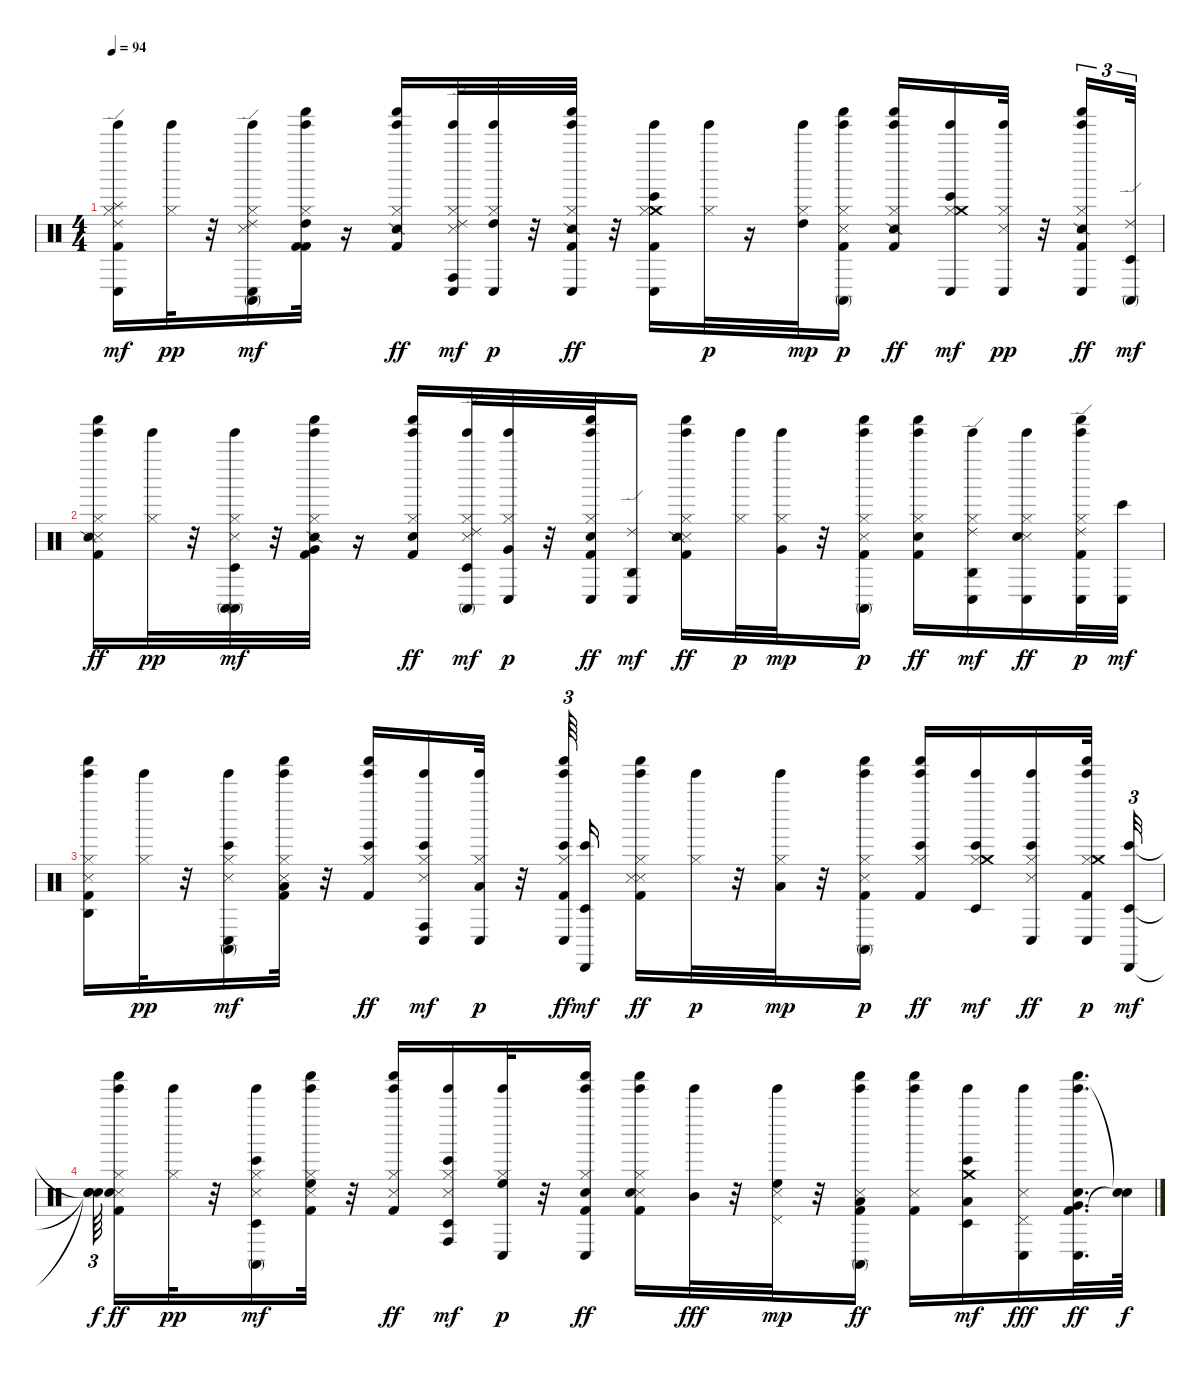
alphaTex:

\track "" {instrument percussion}
\staff {score}
\articulation defaults
\ts (4 4)
\tempo 94
\clef neutral
\ks c
("Ride (edge) 2" "Conga low (hit)" "Splash (hit)" "Kick (hit) 2" "Hi-Hat (closed)" "Tinkle Bell (hit)").16{dy mf volume 6} ("Hi-Hat (closed)" "Tinkle Bell (hit)").32{dy pp} r.32 ("Hi-Hat (closed)" "Tinkle Bell (hit)" "Conga high (mute)" "Snare (side stick) 3" "Ride (edge) 2" "Conga low (hit)").16{dy mf} ("Kick (hit) 2" "Hi-Hat (closed)" "Tinkle Bell (hit)" "Shaker (hit)" "Kick (hit) 2" "High Tom (hit)").32 r.16 ("Kick (hit) 2" "Hi-Hat (closed)" "Tinkle Bell (hit)" "Shaker (hit)" "Snare (side stick) 2").16{dy ff} ("Hi-Hat (closed)" "Tinkle Bell (hit)" "Conga high (hit)" "Snare (side stick) 3" "Conga low (hit)" "Ride (edge) 2").32{dy mf} ("Hi-Hat (closed)" "Tinkle Bell (hit)" "Conga low (hit)" "High Tom (hit)").32{dy p} r.32 ("Kick (hit) 2" "Hi-Hat (closed)" "Tinkle Bell (hit)" "Shaker (hit)" "Conga low (hit)" "Snare (side stick) 2").32{dy ff volume 7} r.32 ("Bongo High (hit)" "Conga low (hit)" "Crash medium (hit)" "Kick (hit) 2" "Hi-Hat (closed)" "Tinkle Bell (hit)").16{volume 6} ("Hi-Hat (closed)" "Tinkle Bell (hit)").32{dy p} r.16 ("Hi-Hat (closed)" "Tinkle Bell (hit)" "High Tom (hit)").32{dy mp} ("Conga high (mute)" "Kick (hit) 2" "Hi-Hat (closed)" "Tinkle Bell (hit)" "Shaker (hit)" "Snare (side stick) 3").16{dy p} ("Kick (hit) 2" "Hi-Hat (closed)" "Tinkle Bell (hit)" "Shaker (hit)" "Snare (side stick) 2").16{dy ff} ("Hi-Hat (closed)" "Tinkle Bell (hit)" "Bongo High (hit)" "Crash medium (hit)" "Conga low (hit)").16{dy mf} ("Hi-Hat (closed)" "Tinkle Bell (hit)" "Conga low (hit)" "Snare (side stick) 3").32{dy pp} r.32 ("Kick (hit) 2" "Hi-Hat (closed)" "Tinkle Bell (hit)" "Shaker (hit)" "Conga low (hit)" "Snare (side stick) 2").16{tu (3 2) dy ff volume 7} ("Conga high (mute)" "Timbale low (hit)" "Ride (edge) 2").32{tu (3 2) dy mf volume 6} |
("Kick (hit) 2" "Hi-Hat (closed)" "Tinkle Bell (hit)" "Shaker (hit)" "Snare (side stick) 3" "Snare (side stick) 2").16{dy ff} ("Hi-Hat (closed)" "Tinkle Bell (hit)").32{dy pp} r.32 ("Hi-Hat (closed)" "Tinkle Bell (hit)" "Conga high (mute)" "Snare (side stick) 3" "Conga high (mute)" "Timbale low (hit)").32{dy mf} r.32 ("Kick (hit) 2" "Hi-Hat (closed)" "Tinkle Bell (hit)" "Shaker (hit)" "Snare (side stick) 2" "Very Low Tom (hit)").32 r.16 ("Kick (hit) 2" "Hi-Hat (closed)" "Tinkle Bell (hit)" "Shaker (hit)" "Snare (hit) 2").16{dy ff} ("Hi-Hat (closed)" "Tinkle Bell (hit)" "Snare (side stick) 3" "Timbale low (hit)" "Conga high (mute)" "Ride (edge) 2").32{dy mf} ("Hi-Hat (closed)" "Tinkle Bell (hit)" "Conga low (hit)" "Very Low Tom (hit)").32{dy p} r.32 ("Kick (hit) 2" "Hi-Hat (closed)" "Tinkle Bell (hit)" "Shaker (hit)" "Conga low (hit)" "Snare (hit) 2").32{dy ff volume 7} ("Conga low (hit)" "Agogo high (hit)" "Ride (edge) 2").16{dy mf volume 6} ("Kick (hit) 2" "Hi-Hat (closed)" "Tinkle Bell (hit)" "Shaker (hit)" "Snare (side stick) 3" "Snare (side stick) 2").16{dy ff} ("Hi-Hat (closed)" "Tinkle Bell (hit)").32{dy p} ("Hi-Hat (closed)" "Tinkle Bell (hit)" "Very Low Tom (hit)").32{dy mp} r.32 ("Conga high (mute)" "Kick (hit) 2" "Hi-Hat (closed)" "Tinkle Bell (hit)" "Shaker (hit)" "Snare (side stick) 3").16{dy p} ("Kick (hit) 2" "Hi-Hat (closed)" "Tinkle Bell (hit)" "Shaker (hit)" "Snare (hit) 2").16{dy ff} ("Hi-Hat (closed)" "Tinkle Bell (hit)" "Conga low (hit)" "Ride (edge) 2" "Agogo high (hit)").16{dy mf} ("Hi-Hat (closed)" "Tinkle Bell (hit)" "Conga low (hit)" "Snare (side stick) 3" "Snare (hit) 2").16{dy ff} ("Kick (hit) 2" "Hi-Hat (closed)" "Tinkle Bell (hit)" "Shaker (hit)" "Conga low (hit)" "Ride (edge) 2").32{dy p} ("Bongo High (hit)" "Conga low (hit)").32{dy mf volume 6} |
("Agogo high (hit)" "Kick (hit) 2" "Hi-Hat (closed)" "Tinkle Bell (hit)" "Shaker (hit)" "Snare (side stick) 3").16 ("Hi-Hat (closed)" "Tinkle Bell (hit)").32{dy pp} r.32 ("Hi-Hat (closed)" "Tinkle Bell (hit)" "Conga high (mute)" "Snare (side stick) 3" "Bongo High (hit)" "Conga low (hit)").16{dy mf} ("Kick (hit) 2" "Hi-Hat (closed)" "Tinkle Bell (hit)" "Shaker (hit)" "Metronome (hit)" "Low Tom (hit)").32 r.32 ("Kick (hit) 2" "Hi-Hat (closed)" "Tinkle Bell (hit)" "Shaker (hit)" "Bongo High (hit)").16{dy ff} ("Hi-Hat (closed)" "Tinkle Bell (hit)" "Conga high (hit)" "Snare (side stick) 3" "Conga low (hit)" "Bongo High (hit)").16{dy mf} ("Hi-Hat (closed)" "Tinkle Bell (hit)" "Conga low (hit)" "Low Tom (hit)").32{dy p} r.32 ("Kick (hit) 2" "Hi-Hat (closed)" "Tinkle Bell (hit)" "Shaker (hit)" "Conga low (hit)" "Bongo High (hit)").64{tu (3 2) dy ff volume 7} ("Bongo High (hit)" "Timbale low (hit)" "Cabasa (hit)").16{dy mf volume 6} ("Kick (hit) 2" "Hi-Hat (closed)" "Tinkle Bell (hit)" "Shaker (hit)" "Snare (side stick) 3" "Metronome (hit)").16{dy ff} ("Hi-Hat (closed)" "Tinkle Bell (hit)").32{dy p} r.32 ("Hi-Hat (closed)" "Tinkle Bell (hit)" "Low Tom (hit)").32{dy mp} r.32 ("Conga high (mute)" "Kick (hit) 2" "Hi-Hat (closed)" "Tinkle Bell (hit)" "Shaker (hit)" "Snare (side stick) 3").16{dy p} ("Kick (hit) 2" "Hi-Hat (closed)" "Tinkle Bell (hit)" "Shaker (hit)" "Bongo High (hit)").16{dy ff} ("Hi-Hat (closed)" "Tinkle Bell (hit)" "Bongo High (hit)" "Crash medium (hit)" "Timbale low (hit)").16{dy mf} ("Hi-Hat (closed)" "Tinkle Bell (hit)" "Conga low (hit)" "Snare (side stick) 3" "Bongo High (hit)").16{dy ff} ("Kick (hit) 2" "Hi-Hat (closed)" "Tinkle Bell (hit)" "Shaker (hit)" "Conga low (hit)" "Crash medium (hit)").32{dy p volume 7} ("Bongo High (hit)" "Timbale low (hit)" "Cabasa (hit)").32{tu (3 2) dy mf volume 6} |
("Snare (hit)"{t} "Snare (hit)"{t} "Snare (hit)"{t}).64{tu (3 2) dy f beam splitsecondary} ("Kick (hit) 2" "Hi-Hat (closed)" "Tinkle Bell (hit)" "Shaker (hit)" "Snare (side stick) 3" "Snare (hit) 2").16{dy ff} ("Hi-Hat (closed)" "Tinkle Bell (hit)").32{dy pp} r.32 ("Hi-Hat (closed)" "Tinkle Bell (hit)" "Conga high (mute)" "Snare (side stick) 3" "Bongo High (hit)" "Timbale low (hit)").16{dy mf} ("Kick (hit) 2" "Hi-Hat (closed)" "Tinkle Bell (hit)" "Shaker (hit)" "Metronome (hit)" "High Floor Tom (hit)").32 r.32 ("Kick (hit) 2" "Hi-Hat (closed)" "Tinkle Bell (hit)" "Shaker (hit)" "Metronome (hit)").16{dy ff} ("Tinkle Bell (hit)" "Conga high (hit)" "Snare (side stick) 3" "Hi-Hat (closed)" "Timbale low (hit)" "Bongo High (hit)").16{dy mf} ("Tinkle Bell (hit)" "Conga low (hit)" "Hi-Hat (closed)" "High Floor Tom (hit)").32{dy p} r.32 ("Kick (hit) 2" "Conga low (hit)" "Hi-Hat (closed)" "Tinkle Bell (hit)" "Shaker (hit)" "Snare (hit) 2").16{dy ff} ("Kick (hit) 2" "Snare (side stick) 3" "Tinkle Bell (hit)" "Shaker (hit)" "Hi-Hat (closed)" "Snare (hit) 2").16 ("Tinkle Bell (hit)" "Mid Tom (hit)").32{dy fff} r.32 ("Tinkle Bell (hit)" "Pedal Hi-Hat (hit)" "Snare (side stick) 3" "High Floor Tom (hit)").32{dy mp} r.32 ("Conga high (mute)" "Kick (hit) 2" "Tinkle Bell (hit)" "Shaker (hit)" "Low Tom (hit)" "Metronome (hit)").16{dy ff} ("Kick (hit) 2" "Tinkle Bell (hit)" "Shaker (hit)" "Metronome (hit)").16 ("Tinkle Bell (hit)" "Low Tom (hit)" "Bongo High (hit)" "Crash medium (hit)" "Timbale low (hit)").16{dy mf} ("Tinkle Bell (hit)" "Conga low (hit)" "Pedal Hi-Hat (hit)" "Snare (side stick) 3").16{dy fff} ("Kick (hit) 2" "Tinkle Bell (hit)" "Shaker (hit)" "Conga low (hit)" "Very Low Tom (hit)" "Snare (hit) 2").32{d dy ff volume 7} ("Snare (hit)"{t} "Snare (hit)"{t}).64{dy f}
